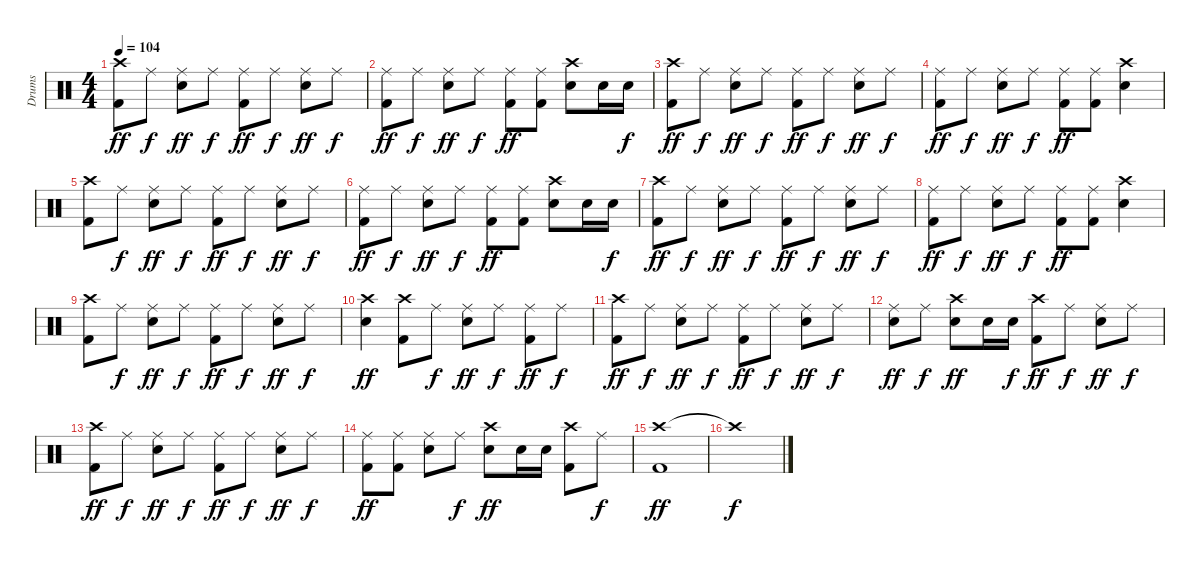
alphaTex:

\track ("Drums" "Drums") {instrument percussion}
\staff {score}
\articulation defaults
\ts (4 4)
\tempo 104
\clef neutral
\ks c
("Crash high (hit)" "Kick (hit) 2").8{dy ff} "Ride (middle)".8{dy f} ("Ride (middle)" "Snare (hit) 2").8{dy ff} "Ride (middle)".8{dy f} ("Ride (middle)" "Kick (hit) 2").8{dy ff} "Ride (middle)".8{dy f} ("Ride (middle)" "Snare (hit) 2").8{dy ff} "Ride (middle)".8{dy f} |
("Ride (middle)" "Kick (hit) 2").8{dy ff} "Ride (middle)".8{dy f} ("Ride (middle)" "Snare (hit) 2").8{dy ff} "Ride (middle)".8{dy f} ("Ride (middle)" "Kick (hit) 2").8{dy ff} ("Ride (middle)" "Kick (hit) 2").8 ("Crash high (hit)" "Snare (hit) 2").8 "Snare (hit) 2".16 "Snare (hit) 2".16{dy f} |
("Crash high (hit)" "Kick (hit) 2").8{dy ff} "Ride (middle)".8{dy f} ("Ride (middle)" "Snare (hit) 2").8{dy ff} "Ride (middle)".8{dy f} ("Ride (middle)" "Kick (hit) 2").8{dy ff} "Ride (middle)".8{dy f} ("Ride (middle)" "Snare (hit) 2").8{dy ff} "Ride (middle)".8{dy f} |
("Ride (middle)" "Kick (hit) 2").8{dy ff} "Ride (middle)".8{dy f} ("Ride (middle)" "Snare (hit) 2").8{dy ff} "Ride (middle)".8{dy f} ("Ride (middle)" "Kick (hit) 2").8{dy ff} ("Ride (middle)" "Kick (hit) 2").8 ("Crash high (hit)" "Snare (hit) 2").4 |
("Crash high (hit)" "Kick (hit) 2").8 "Ride (middle)".8{dy f} ("Ride (middle)" "Snare (hit) 2").8{dy ff} "Ride (middle)".8{dy f} ("Ride (middle)" "Kick (hit) 2").8{dy ff} "Ride (middle)".8{dy f} ("Ride (middle)" "Snare (hit) 2").8{dy ff} "Ride (middle)".8{dy f} |
("Ride (middle)" "Kick (hit) 2").8{dy ff} "Ride (middle)".8{dy f} ("Ride (middle)" "Snare (hit) 2").8{dy ff} "Ride (middle)".8{dy f} ("Ride (middle)" "Kick (hit) 2").8{dy ff} ("Ride (middle)" "Kick (hit) 2").8 ("Crash high (hit)" "Snare (hit) 2").8 "Snare (hit) 2".16 "Snare (hit) 2".16{dy f} |
("Crash high (hit)" "Kick (hit) 2").8{dy ff} "Ride (middle)".8{dy f} ("Ride (middle)" "Snare (hit) 2").8{dy ff} "Ride (middle)".8{dy f} ("Ride (middle)" "Kick (hit) 2").8{dy ff} "Ride (middle)".8{dy f} ("Ride (middle)" "Snare (hit) 2").8{dy ff} "Ride (middle)".8{dy f} |
("Ride (middle)" "Kick (hit) 2").8{dy ff} "Ride (middle)".8{dy f} ("Ride (middle)" "Snare (hit) 2").8{dy ff} "Ride (middle)".8{dy f} ("Ride (middle)" "Kick (hit) 2").8{dy ff} ("Ride (middle)" "Kick (hit) 2").8 ("Crash high (hit)" "Snare (hit) 2").4 |
("Crash high (hit)" "Kick (hit) 2").8 "Ride (middle)".8{dy f} ("Ride (middle)" "Snare (hit) 2").8{dy ff} "Ride (middle)".8{dy f} ("Ride (middle)" "Kick (hit) 2").8{dy ff} "Ride (middle)".8{dy f} ("Ride (middle)" "Snare (hit) 2").8{dy ff} "Ride (middle)".8{dy f} |
("Crash high (hit)" "Snare (hit) 2").4{dy ff} ("Crash high (hit)" "Kick (hit) 2").8 "Ride (middle)".8{dy f} ("Ride (middle)" "Snare (hit) 2").8{dy ff} "Ride (middle)".8{dy f} ("Ride (middle)" "Kick (hit) 2").8{dy ff} "Ride (middle)".8{dy f} |
("Crash high (hit)" "Kick (hit) 2").8{dy ff} "Ride (middle)".8{dy f} ("Ride (middle)" "Snare (hit) 2").8{dy ff} "Ride (middle)".8{dy f} ("Ride (middle)" "Kick (hit) 2").8{dy ff} "Ride (middle)".8{dy f} ("Ride (middle)" "Snare (hit) 2").8{dy ff} "Ride (middle)".8{dy f} |
("Ride (middle)" "Snare (hit) 2").8{dy ff} "Ride (middle)".8{dy f} ("Crash high (hit)" "Snare (hit) 2").8{dy ff} "Snare (hit) 2".16 "Snare (hit) 2".16{dy f} ("Crash high (hit)" "Kick (hit) 2").8{dy ff} "Ride (middle)".8{dy f} ("Ride (middle)" "Snare (hit) 2").8{dy ff} "Ride (middle)".8{dy f} |
("Crash high (hit)" "Kick (hit) 2").8{dy ff} "Ride (middle)".8{dy f} ("Ride (middle)" "Snare (hit) 2").8{dy ff} "Ride (middle)".8{dy f} ("Ride (middle)" "Kick (hit) 2").8{dy ff} "Ride (middle)".8{dy f} ("Ride (middle)" "Snare (hit) 2").8{dy ff} "Ride (middle)".8{dy f} |
("Ride (middle)" "Kick (hit) 2").8{dy ff} ("Ride (middle)" "Kick (hit) 2").8 ("Ride (middle)" "Snare (hit) 2").8 "Ride (middle)".8{dy f} ("Crash high (hit)" "Snare (hit) 2").8{dy ff} "Snare (hit) 2".16 "Snare (hit) 2".16 ("Crash high (hit)" "Kick (hit) 2").8 "Ride (middle)".8{dy f} |
("Crash high (hit)" "Kick (hit) 2").1{dy ff} |
"Crash high (hit)"{t}.1{dy f}
